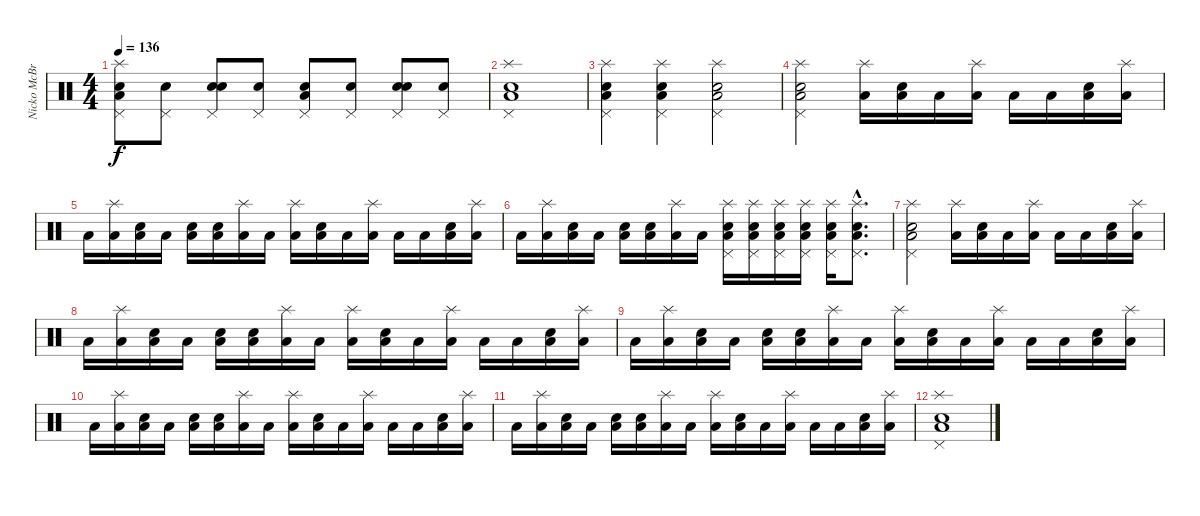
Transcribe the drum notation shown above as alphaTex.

\track ("Nicko McBrian" "Nicko McBr") {instrument percussion}
\staff {score}
\articulation defaults
\ts (4 4)
\tempo 136
\clef neutral
\ks c
("Snare (hit)" "Low Floor Tom (hit)" "Pedal Hi-Hat (hit)" "Splash (hit)").8{dy f} ("Snare (hit)" "Pedal Hi-Hat (hit)").8 ("Snare (hit)" "Electric Snare (hit)" "Pedal Hi-Hat (hit)").8 ("Snare (hit)" "Pedal Hi-Hat (hit)").8 ("Snare (hit)" "Low Floor Tom (hit)" "Pedal Hi-Hat (hit)").8 ("Snare (hit)" "Pedal Hi-Hat (hit)").8 ("Snare (hit)" "Electric Snare (hit)" "Pedal Hi-Hat (hit)").8 ("Snare (hit)" "Pedal Hi-Hat (hit)").8 |
("Electric Snare (hit)" "Low Floor Tom (hit)" "Pedal Hi-Hat (hit)" "Splash (hit)").1 |
("Electric Snare (hit)" "Low Floor Tom (hit)" "Pedal Hi-Hat (hit)" "Splash (hit)").4 ("Electric Snare (hit)" "Low Floor Tom (hit)" "Pedal Hi-Hat (hit)" "Splash (hit)").4 ("Electric Snare (hit)" "Low Floor Tom (hit)" "Pedal Hi-Hat (hit)" "Splash (hit)").2 |
("Electric Snare (hit)" "Low Floor Tom (hit)" "Pedal Hi-Hat (hit)" "Splash (hit)").2 ("Low Floor Tom (hit)" "Splash (hit)").16 ("Electric Snare (hit)" "Low Floor Tom (hit)").16 "Low Floor Tom (hit)".16 ("Low Floor Tom (hit)" "Splash (hit)").16 "Low Floor Tom (hit)".16 "Low Floor Tom (hit)".16 ("Electric Snare (hit)" "Low Floor Tom (hit)").16 ("Low Floor Tom (hit)" "Splash (hit)").16 |
"Low Floor Tom (hit)".16 ("Low Floor Tom (hit)" "Splash (hit)").16 ("Electric Snare (hit)" "Low Floor Tom (hit)").16 "Low Floor Tom (hit)".16 ("Electric Snare (hit)" "Low Floor Tom (hit)").16 ("Electric Snare (hit)" "Low Floor Tom (hit)").16 ("Low Floor Tom (hit)" "Splash (hit)").16 "Low Floor Tom (hit)".16 ("Low Floor Tom (hit)" "Splash (hit)").16 ("Electric Snare (hit)" "Low Floor Tom (hit)").16 "Low Floor Tom (hit)".16 ("Low Floor Tom (hit)" "Splash (hit)").16 "Low Floor Tom (hit)".16 "Low Floor Tom (hit)".16 ("Electric Snare (hit)" "Low Floor Tom (hit)").16 ("Low Floor Tom (hit)" "Splash (hit)").16 |
"Low Floor Tom (hit)".16 ("Low Floor Tom (hit)" "Splash (hit)").16 ("Electric Snare (hit)" "Low Floor Tom (hit)").16 "Low Floor Tom (hit)".16 ("Electric Snare (hit)" "Low Floor Tom (hit)").16 ("Electric Snare (hit)" "Low Floor Tom (hit)").16 ("Low Floor Tom (hit)" "Splash (hit)").16 "Low Floor Tom (hit)".16 ("Electric Snare (hit)" "Low Floor Tom (hit)" "Pedal Hi-Hat (hit)" "Splash (hit)").16 ("Electric Snare (hit)" "Low Floor Tom (hit)" "Pedal Hi-Hat (hit)" "Splash (hit)").16 ("Electric Snare (hit)" "Low Floor Tom (hit)" "Pedal Hi-Hat (hit)" "Splash (hit)").16 ("Electric Snare (hit)" "Low Floor Tom (hit)" "Pedal Hi-Hat (hit)" "Splash (hit)").16 ("Electric Snare (hit)" "Low Floor Tom (hit)" "Pedal Hi-Hat (hit)" "Splash (hit)").16 ("Electric Snare (hit)"{hac} "Low Floor Tom (hit)"{hac} "Pedal Hi-Hat (hit)"{hac} "Splash (hit)"{hac}).8{d} |
("Electric Snare (hit)" "Low Floor Tom (hit)" "Pedal Hi-Hat (hit)" "Splash (hit)").2 ("Low Floor Tom (hit)" "Splash (hit)").16 ("Electric Snare (hit)" "Low Floor Tom (hit)").16 "Low Floor Tom (hit)".16 ("Low Floor Tom (hit)" "Splash (hit)").16 "Low Floor Tom (hit)".16 "Low Floor Tom (hit)".16 ("Electric Snare (hit)" "Low Floor Tom (hit)").16 ("Low Floor Tom (hit)" "Splash (hit)").16 |
"Low Floor Tom (hit)".16 ("Low Floor Tom (hit)" "Splash (hit)").16 ("Electric Snare (hit)" "Low Floor Tom (hit)").16 "Low Floor Tom (hit)".16 ("Electric Snare (hit)" "Low Floor Tom (hit)").16 ("Electric Snare (hit)" "Low Floor Tom (hit)").16 ("Low Floor Tom (hit)" "Splash (hit)").16 "Low Floor Tom (hit)".16 ("Low Floor Tom (hit)" "Splash (hit)").16 ("Electric Snare (hit)" "Low Floor Tom (hit)").16 "Low Floor Tom (hit)".16 ("Low Floor Tom (hit)" "Splash (hit)").16 "Low Floor Tom (hit)".16 "Low Floor Tom (hit)".16 ("Electric Snare (hit)" "Low Floor Tom (hit)").16 ("Low Floor Tom (hit)" "Splash (hit)").16 |
"Low Floor Tom (hit)".16 ("Low Floor Tom (hit)" "Splash (hit)").16 ("Electric Snare (hit)" "Low Floor Tom (hit)").16 "Low Floor Tom (hit)".16 ("Electric Snare (hit)" "Low Floor Tom (hit)").16 ("Electric Snare (hit)" "Low Floor Tom (hit)").16 ("Low Floor Tom (hit)" "Splash (hit)").16 "Low Floor Tom (hit)".16 ("Low Floor Tom (hit)" "Splash (hit)").16 ("Electric Snare (hit)" "Low Floor Tom (hit)").16 "Low Floor Tom (hit)".16 ("Low Floor Tom (hit)" "Splash (hit)").16 "Low Floor Tom (hit)".16 "Low Floor Tom (hit)".16 ("Electric Snare (hit)" "Low Floor Tom (hit)").16 ("Low Floor Tom (hit)" "Splash (hit)").16 |
"Low Floor Tom (hit)".16 ("Low Floor Tom (hit)" "Splash (hit)").16 ("Electric Snare (hit)" "Low Floor Tom (hit)").16 "Low Floor Tom (hit)".16 ("Electric Snare (hit)" "Low Floor Tom (hit)").16 ("Electric Snare (hit)" "Low Floor Tom (hit)").16 ("Low Floor Tom (hit)" "Splash (hit)").16 "Low Floor Tom (hit)".16 ("Low Floor Tom (hit)" "Splash (hit)").16 ("Electric Snare (hit)" "Low Floor Tom (hit)").16 "Low Floor Tom (hit)".16 ("Low Floor Tom (hit)" "Splash (hit)").16 "Low Floor Tom (hit)".16 "Low Floor Tom (hit)".16 ("Electric Snare (hit)" "Low Floor Tom (hit)").16 ("Low Floor Tom (hit)" "Splash (hit)").16 |
"Low Floor Tom (hit)".16 ("Low Floor Tom (hit)" "Splash (hit)").16 ("Electric Snare (hit)" "Low Floor Tom (hit)").16 "Low Floor Tom (hit)".16 ("Electric Snare (hit)" "Low Floor Tom (hit)").16 ("Electric Snare (hit)" "Low Floor Tom (hit)").16 ("Low Floor Tom (hit)" "Splash (hit)").16 "Low Floor Tom (hit)".16 ("Low Floor Tom (hit)" "Splash (hit)").16 ("Electric Snare (hit)" "Low Floor Tom (hit)").16 "Low Floor Tom (hit)".16 ("Low Floor Tom (hit)" "Splash (hit)").16 "Low Floor Tom (hit)".16 "Low Floor Tom (hit)".16 ("Electric Snare (hit)" "Low Floor Tom (hit)").16 ("Low Floor Tom (hit)" "Splash (hit)").16 |
("Electric Snare (hit)" "Low Floor Tom (hit)" "Pedal Hi-Hat (hit)" "Splash (hit)").1
